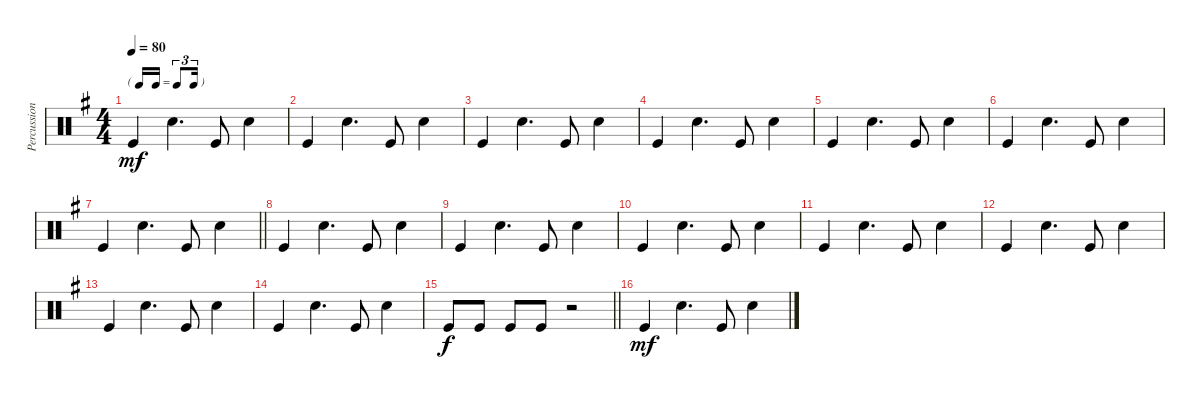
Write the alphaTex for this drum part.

\track ("Percussion" "Percussion") {instrument percussion}
\staff {score}
\articulation defaults
\ts (4 4)
\tf triplet16th
\tempo 80
\clef neutral
\ks eminor "Kick (hit)".4{dy mf} "Snare (hit) 2".4{d} "Kick (hit)".8 "Snare (hit) 2".4
|
"Kick (hit)".4 "Snare (hit) 2".4{d} "Kick (hit)".8 "Snare (hit) 2".4 |
"Kick (hit)".4 "Snare (hit) 2".4{d} "Kick (hit)".8 "Snare (hit) 2".4 |
"Kick (hit)".4 "Snare (hit) 2".4{d} "Kick (hit)".8 "Snare (hit) 2".4 |
"Kick (hit)".4 "Snare (hit) 2".4{d} "Kick (hit)".8 "Snare (hit) 2".4 |
"Kick (hit)".4 "Snare (hit) 2".4{d} "Kick (hit)".8 "Snare (hit) 2".4 |
\barLineRight lightlight "Kick (hit)".4 "Snare (hit) 2".4{d} "Kick (hit)".8 "Snare (hit) 2".4
|
"Kick (hit)".4 "Snare (hit) 2".4{d} "Kick (hit)".8 "Snare (hit) 2".4 |
"Kick (hit)".4 "Snare (hit) 2".4{d} "Kick (hit)".8 "Snare (hit) 2".4 |
"Kick (hit)".4 "Snare (hit) 2".4{d} "Kick (hit)".8 "Snare (hit) 2".4 |
"Kick (hit)".4 "Snare (hit) 2".4{d} "Kick (hit)".8 "Snare (hit) 2".4 |
"Kick (hit)".4 "Snare (hit) 2".4{d} "Kick (hit)".8 "Snare (hit) 2".4 |
"Kick (hit)".4 "Snare (hit) 2".4{d} "Kick (hit)".8 "Snare (hit) 2".4 |
"Kick (hit)".4 "Snare (hit) 2".4{d} "Kick (hit)".8 "Snare (hit) 2".4 |
\barLineRight lightlight "Kick (hit)".8{dy f} "Kick (hit)".8 "Kick (hit)".8 "Kick (hit)".8
r.2 |
"Kick (hit)".4{dy mf} "Snare (hit) 2".4{d} "Kick (hit)".8 "Snare (hit) 2".4
